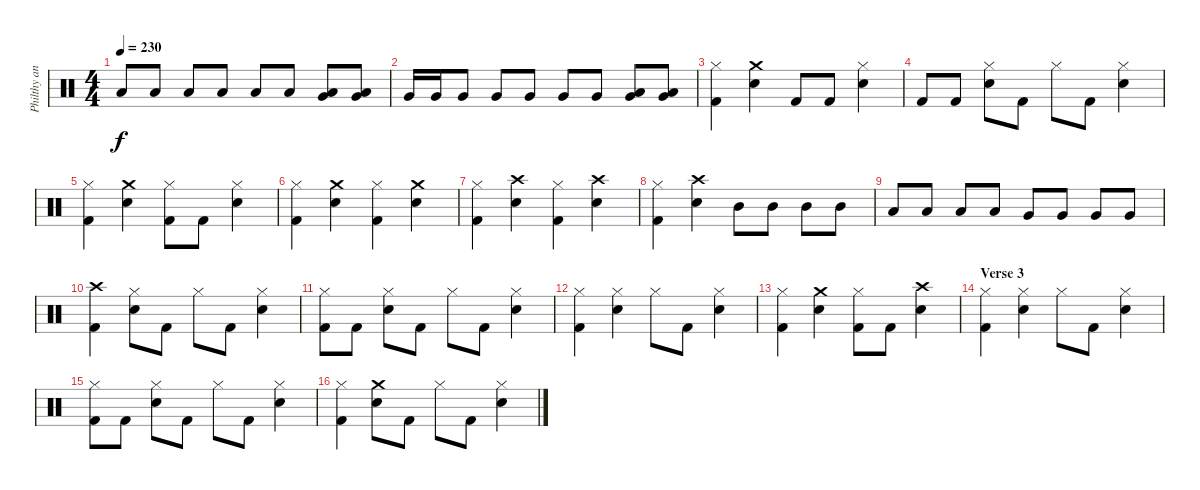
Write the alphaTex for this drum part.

\track ("Philthy animal Taylor" "Philthy an") {instrument percussion}
\staff {score}
\articulation defaults
\ts (4 4)
\tempo 230
\clef neutral
\ks c "Low Tom (hit)".8{dy f} "Low Tom (hit)".8 "Low Tom (hit)".8 "Low Tom (hit)".8 "Low Tom (hit)".8 "Low Tom (hit)".8
("Low Tom (hit)" "Very Low Tom (hit)").8 ("Low Tom (hit)" "Very Low Tom (hit)").8 |
"Very Low Tom (hit)".16 "Very Low Tom (hit)".16 "Very Low Tom (hit)".8 "Very Low Tom (hit)".8 "Very Low Tom (hit)".8 "Very Low Tom (hit)".8 "Very Low Tom (hit)".8 ("Very Low Tom (hit)" "Low Floor Tom (hit)").8 ("Very Low Tom (hit)" "Low Floor Tom (hit)").8 |
("Hi-Hat (closed)" "Kick (hit) 2").4 ("Crash medium (hit)" "Snare (hit) 2").4 "Kick (hit) 2".8 "Kick (hit) 2".8 ("Hi-Hat (closed)" "Snare (hit) 2").4 |
"Kick (hit) 2".8 "Kick (hit) 2".8 ("Hi-Hat (closed)" "Snare (hit) 2").8 "Kick (hit) 2".8 "Hi-Hat (closed)".8 "Kick (hit) 2".8 ("Hi-Hat (closed)" "Snare (hit) 2").4 |
("Hi-Hat (closed)" "Kick (hit) 2").4 ("Crash medium (hit)" "Snare (hit) 2").4 ("Hi-Hat (closed)" "Kick (hit) 2").8 "Kick (hit) 2".8 ("Hi-Hat (closed)" "Snare (hit) 2").4 |
("Hi-Hat (closed)" "Kick (hit) 2").4 ("Crash medium (hit)" "Snare (hit) 2").4 ("Hi-Hat (closed)" "Kick (hit) 2").4 ("Crash medium (hit)" "Snare (hit) 2").4 |
("Hi-Hat (closed)" "Kick (hit) 2").4 ("Crash high (hit)" "Snare (hit) 2").4 ("Hi-Hat (closed)" "Kick (hit) 2").4 ("Crash high (hit)" "Snare (hit) 2").4 |
("Hi-Hat (closed)" "Kick (hit) 2").4 ("Crash high (hit)" "Snare (hit) 2").4 "Mid Tom (hit)".8 "Mid Tom (hit)".8 "Mid Tom (hit)".8 "Mid Tom (hit)".8 |
"Low Tom (hit)".8 "Low Tom (hit)".8 "Low Tom (hit)".8 "Low Tom (hit)".8 "Very Low Tom (hit)".8 "Very Low Tom (hit)".8 "Very Low Tom (hit)".8 "Very Low Tom (hit)".8 |
("Crash high (hit)" "Kick (hit) 2").4 ("Hi-Hat (closed)" "Snare (hit) 2").8 "Kick (hit) 2".8 "Hi-Hat (closed)".8 "Kick (hit) 2".8 ("Hi-Hat (closed)" "Snare (hit) 2").4 |
("Hi-Hat (closed)" "Kick (hit) 2").8 "Kick (hit) 2".8 ("Hi-Hat (closed)" "Snare (hit) 2").8 "Kick (hit) 2".8 "Hi-Hat (closed)".8 "Kick (hit) 2".8 ("Hi-Hat (closed)" "Snare (hit) 2").4 |
("Hi-Hat (closed)" "Kick (hit) 2").4 ("Hi-Hat (closed)" "Snare (hit) 2").4 "Hi-Hat (closed)".8 "Kick (hit) 2".8 ("Hi-Hat (closed)" "Snare (hit) 2").4 |
("Hi-Hat (closed)" "Kick (hit) 2").4 ("Crash medium (hit)" "Snare (hit) 2").4 ("Hi-Hat (closed)" "Kick (hit) 2").8 "Kick (hit) 2".8 ("Crash high (hit)" "Snare (hit) 2").4 |
\section ("" "Verse 3")
("Hi-Hat (closed)" "Kick (hit) 2").4 ("Hi-Hat (closed)" "Snare (hit) 2").4 "Hi-Hat (closed)".8 "Kick (hit) 2".8 ("Hi-Hat (closed)" "Snare (hit) 2").4 |
("Hi-Hat (closed)" "Kick (hit) 2").8 "Kick (hit) 2".8 ("Hi-Hat (closed)" "Snare (hit) 2").8 "Kick (hit) 2".8 "Hi-Hat (closed)".8 "Kick (hit) 2".8 ("Hi-Hat (closed)" "Snare (hit) 2").4 |
("Hi-Hat (closed)" "Kick (hit) 2").4 ("Crash medium (hit)" "Snare (hit) 2").8 "Kick (hit) 2".8 "Hi-Hat (closed)".8 "Kick (hit) 2".8 ("Hi-Hat (closed)" "Snare (hit) 2").4
